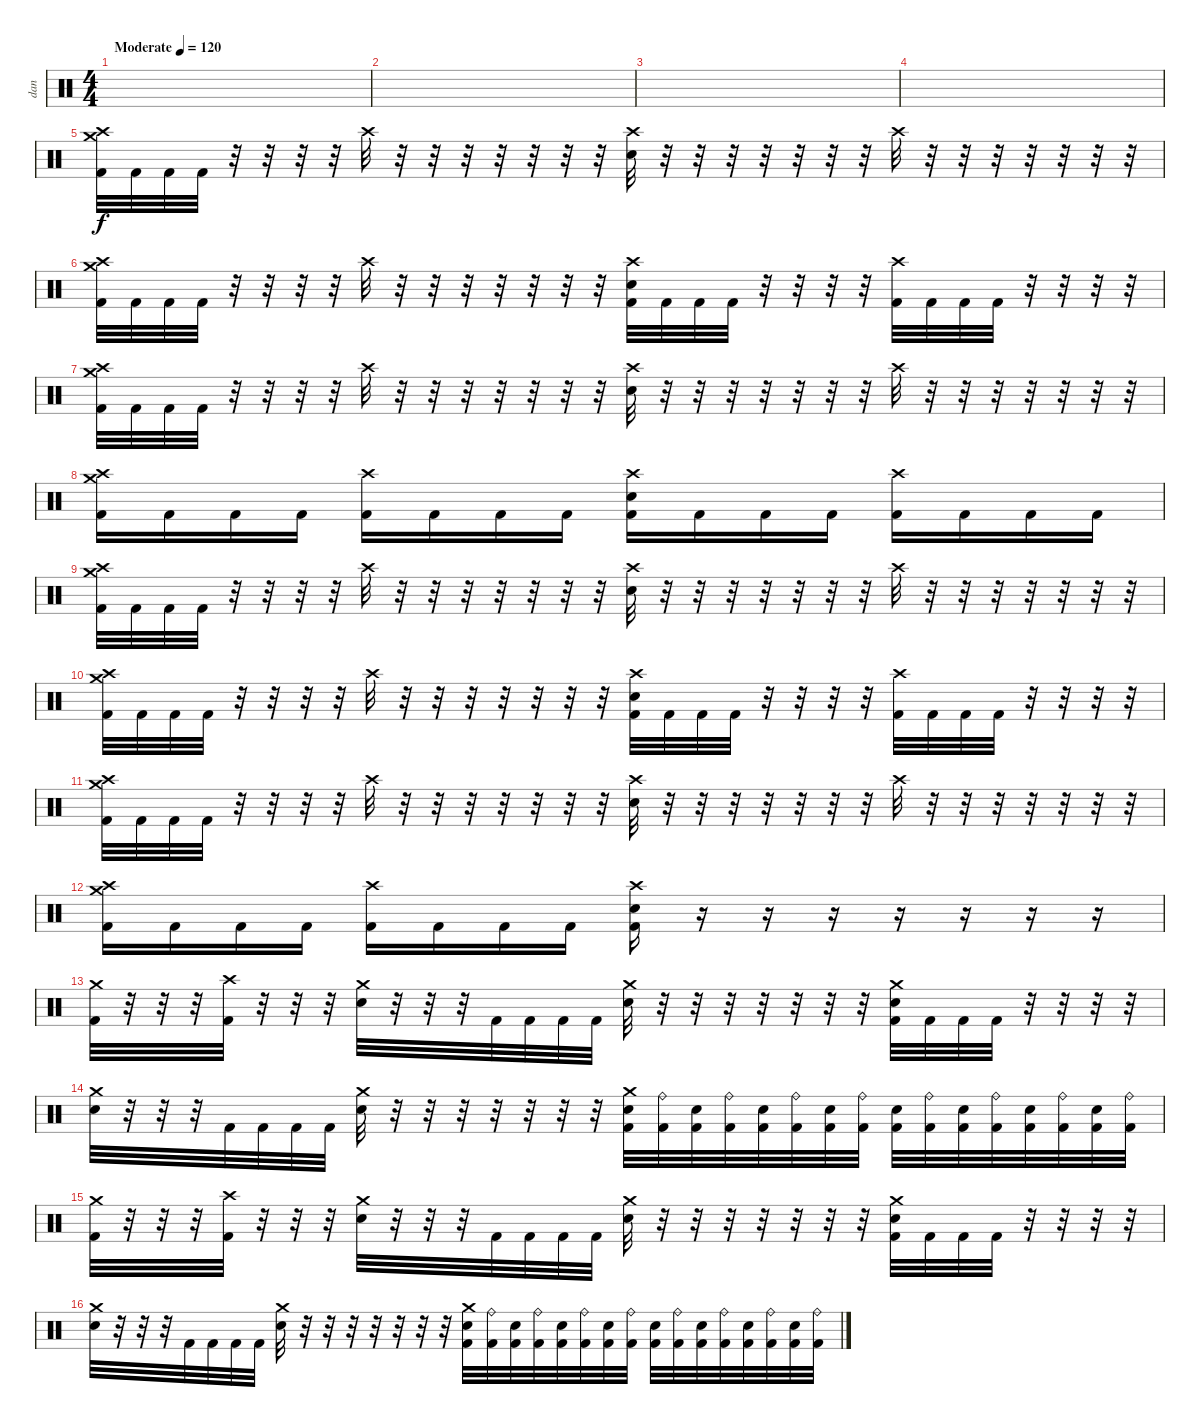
\track ("dan" "dan") {instrument percussion}
\staff {score}
\articulation defaults
\ts (4 4)
\tempo (120 "Moderate")
\clef neutral
\ks c
|
|
|
|
("Crash high (hit)" "Crash medium (hit)" "Kick (hit) 2").32 "Kick (hit) 2".32 "Kick (hit) 2".32 "Kick (hit) 2".32 r.32 r.32 r.32 r.32 "Crash high (hit)".32 r.32 r.32 r.32 r.32 r.32 r.32 r.32 ("Crash high (hit)" "Electric Snare (hit)").32 r.32 r.32 r.32 r.32 r.32 r.32 r.32 "Crash high (hit)".32 r.32 r.32 r.32 r.32 r.32 r.32 r.32 |
("Crash high (hit)" "Crash medium (hit)" "Kick (hit) 2").32 "Kick (hit) 2".32 "Kick (hit) 2".32 "Kick (hit) 2".32 r.32 r.32 r.32 r.32 "Crash high (hit)".32 r.32 r.32 r.32 r.32 r.32 r.32 r.32 ("Crash high (hit)" "Electric Snare (hit)" "Kick (hit) 2").32 "Kick (hit) 2".32 "Kick (hit) 2".32 "Kick (hit) 2".32 r.32 r.32 r.32 r.32 ("Crash high (hit)" "Kick (hit) 2").32 "Kick (hit) 2".32 "Kick (hit) 2".32 "Kick (hit) 2".32 r.32 r.32 r.32 r.32 |
("Crash high (hit)" "Crash medium (hit)" "Kick (hit) 2").32 "Kick (hit) 2".32 "Kick (hit) 2".32 "Kick (hit) 2".32 r.32 r.32 r.32 r.32 "Crash high (hit)".32 r.32 r.32 r.32 r.32 r.32 r.32 r.32 ("Crash high (hit)" "Electric Snare (hit)").32 r.32 r.32 r.32 r.32 r.32 r.32 r.32 "Crash high (hit)".32 r.32 r.32 r.32 r.32 r.32 r.32 r.32 |
("Crash high (hit)" "Crash medium (hit)" "Kick (hit) 2").16 "Kick (hit) 2".16 "Kick (hit) 2".16 "Kick (hit) 2".16 ("Crash high (hit)" "Kick (hit) 2").16 "Kick (hit) 2".16 "Kick (hit) 2".16 "Kick (hit) 2".16 ("Crash high (hit)" "Electric Snare (hit)" "Kick (hit) 2").16 "Kick (hit) 2".16 "Kick (hit) 2".16 "Kick (hit) 2".16 ("Crash high (hit)" "Kick (hit) 2").16 "Kick (hit) 2".16 "Kick (hit) 2".16 "Kick (hit) 2".16 |
("Crash high (hit)" "Crash medium (hit)" "Kick (hit) 2").32 "Kick (hit) 2".32 "Kick (hit) 2".32 "Kick (hit) 2".32 r.32 r.32 r.32 r.32 "Crash high (hit)".32 r.32 r.32 r.32 r.32 r.32 r.32 r.32 ("Crash high (hit)" "Electric Snare (hit)").32 r.32 r.32 r.32 r.32 r.32 r.32 r.32 "Crash high (hit)".32 r.32 r.32 r.32 r.32 r.32 r.32 r.32 |
("Crash high (hit)" "Crash medium (hit)" "Kick (hit) 2").32 "Kick (hit) 2".32 "Kick (hit) 2".32 "Kick (hit) 2".32 r.32 r.32 r.32 r.32 "Crash high (hit)".32 r.32 r.32 r.32 r.32 r.32 r.32 r.32 ("Crash high (hit)" "Electric Snare (hit)" "Kick (hit) 2").32 "Kick (hit) 2".32 "Kick (hit) 2".32 "Kick (hit) 2".32 r.32 r.32 r.32 r.32 ("Crash high (hit)" "Kick (hit) 2").32 "Kick (hit) 2".32 "Kick (hit) 2".32 "Kick (hit) 2".32 r.32 r.32 r.32 r.32 |
("Crash high (hit)" "Crash medium (hit)" "Kick (hit) 2").32 "Kick (hit) 2".32 "Kick (hit) 2".32 "Kick (hit) 2".32 r.32 r.32 r.32 r.32 "Crash high (hit)".32 r.32 r.32 r.32 r.32 r.32 r.32 r.32 ("Crash high (hit)" "Electric Snare (hit)").32 r.32 r.32 r.32 r.32 r.32 r.32 r.32 "Crash high (hit)".32 r.32 r.32 r.32 r.32 r.32 r.32 r.32 |
("Crash high (hit)" "Crash medium (hit)" "Kick (hit) 2").16 "Kick (hit) 2".16 "Kick (hit) 2".16 "Kick (hit) 2".16 ("Crash high (hit)" "Kick (hit) 2").16 "Kick (hit) 2".16 "Kick (hit) 2".16 "Kick (hit) 2".16 ("Crash high (hit)" "Electric Snare (hit)" "Kick (hit) 2").16 r.16 r.16 r.16 r.16 r.16 r.16 r.16 |
("Crash medium (hit)" "Kick (hit) 2").32 r.32 r.32 r.32 ("Crash high (hit)" "Kick (hit) 2").32 r.32 r.32 r.32 ("Crash medium (hit)" "Electric Snare (hit)").32 r.32 r.32 r.32 "Kick (hit) 2".32 "Kick (hit) 2".32 "Kick (hit) 2".32 "Kick (hit) 2".32 ("Crash medium (hit)" "Electric Snare (hit)").32 r.32 r.32 r.32 r.32 r.32 r.32 r.32 ("Crash medium (hit)" "Electric Snare (hit)" "Kick (hit) 2").32 "Kick (hit) 2".32 "Kick (hit) 2".32 "Kick (hit) 2".32 r.32 r.32 r.32 r.32 |
("Crash medium (hit)" "Electric Snare (hit)").32 r.32 r.32 r.32 "Kick (hit) 2".32 "Kick (hit) 2".32 "Kick (hit) 2".32 "Kick (hit) 2".32 ("Crash medium (hit)" "Electric Snare (hit)").32 r.32 r.32 r.32 r.32 r.32 r.32 r.32 ("Crash medium (hit)" "Electric Snare (hit)" "Kick (hit) 2").32 ("Ride (bell)" "Kick (hit) 2").32 ("Electric Snare (hit)" "Kick (hit) 2").32 ("Ride (bell)" "Kick (hit) 2").32 ("Electric Snare (hit)" "Kick (hit) 2").32 ("Ride (bell)" "Kick (hit) 2").32 ("Electric Snare (hit)" "Kick (hit) 2").32 ("Ride (bell)" "Kick (hit) 2").32 ("Electric Snare (hit)" "Kick (hit) 2").32 ("Ride (bell)" "Kick (hit) 2").32 ("Electric Snare (hit)" "Kick (hit) 2").32 ("Ride (bell)" "Kick (hit) 2").32 ("Electric Snare (hit)" "Kick (hit) 2").32 ("Ride (bell)" "Kick (hit) 2").32 ("Electric Snare (hit)" "Kick (hit) 2").32 ("Ride (bell)" "Kick (hit) 2").32 |
("Crash medium (hit)" "Kick (hit) 2").32 r.32 r.32 r.32 ("Crash high (hit)" "Kick (hit) 2").32 r.32 r.32 r.32 ("Crash medium (hit)" "Electric Snare (hit)").32 r.32 r.32 r.32 "Kick (hit) 2".32 "Kick (hit) 2".32 "Kick (hit) 2".32 "Kick (hit) 2".32 ("Crash medium (hit)" "Electric Snare (hit)").32 r.32 r.32 r.32 r.32 r.32 r.32 r.32 ("Crash medium (hit)" "Electric Snare (hit)" "Kick (hit) 2").32 "Kick (hit) 2".32 "Kick (hit) 2".32 "Kick (hit) 2".32 r.32 r.32 r.32 r.32 |
("Crash medium (hit)" "Electric Snare (hit)").32 r.32 r.32 r.32 "Kick (hit) 2".32 "Kick (hit) 2".32 "Kick (hit) 2".32 "Kick (hit) 2".32 ("Crash medium (hit)" "Electric Snare (hit)").32 r.32 r.32 r.32 r.32 r.32 r.32 r.32 ("Crash medium (hit)" "Electric Snare (hit)" "Kick (hit) 2").32 ("Ride (bell)" "Kick (hit) 2").32 ("Electric Snare (hit)" "Kick (hit) 2").32 ("Ride (bell)" "Kick (hit) 2").32 ("Electric Snare (hit)" "Kick (hit) 2").32 ("Ride (bell)" "Kick (hit) 2").32 ("Electric Snare (hit)" "Kick (hit) 2").32 ("Ride (bell)" "Kick (hit) 2").32 ("Electric Snare (hit)" "Kick (hit) 2").32 ("Ride (bell)" "Kick (hit) 2").32 ("Electric Snare (hit)" "Kick (hit) 2").32 ("Ride (bell)" "Kick (hit) 2").32 ("Electric Snare (hit)" "Kick (hit) 2").32 ("Ride (bell)" "Kick (hit) 2").32 ("Electric Snare (hit)" "Kick (hit) 2").32 ("Ride (bell)" "Kick (hit) 2").32
